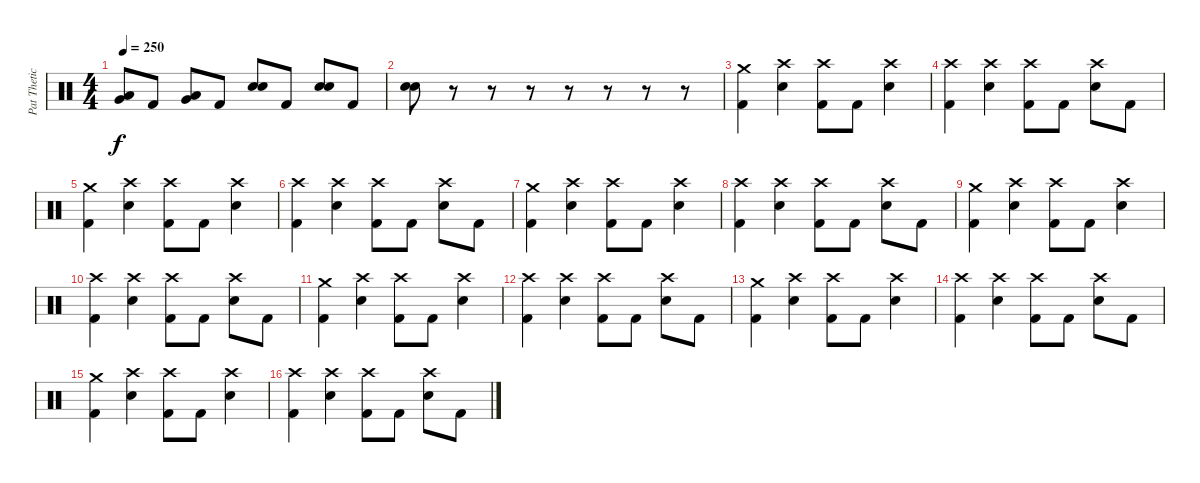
\track ("Pat Thetic" "Pat Thetic") {instrument percussion}
\staff {score}
\articulation defaults
\ts (4 4)
\tempo 250
\clef neutral
\ks c
("Low Tom (hit)" "Very Low Tom (hit)").8{dy f} "Kick (hit) 2".8 ("Low Tom (hit)" "Very Low Tom (hit)").8 "Kick (hit) 2".8 ("Snare (hit) 2" "Snare (hit) 2").8 "Kick (hit) 2".8 ("Snare (hit) 2" "Snare (hit) 2").8 "Kick (hit) 2".8 |
("Snare (hit) 2" "Snare (hit) 2").8 r.8 r.8 r.8 r.8 r.8 r.8 r.8 |
("Crash medium (hit)" "Kick (hit) 2").4 ("Crash high (hit)" "Snare (hit) 2").4 ("Crash high (hit)" "Kick (hit) 2").8 "Kick (hit) 2".8 ("Crash high (hit)" "Snare (hit) 2").4 |
("Crash high (hit)" "Kick (hit) 2").4 ("Crash high (hit)" "Snare (hit) 2").4 ("Crash high (hit)" "Kick (hit) 2").8 "Kick (hit) 2".8 ("Crash high (hit)" "Snare (hit) 2").8 "Kick (hit) 2".8 |
("Crash medium (hit)" "Kick (hit) 2").4 ("Crash high (hit)" "Snare (hit) 2").4 ("Crash high (hit)" "Kick (hit) 2").8 "Kick (hit) 2".8 ("Crash high (hit)" "Snare (hit) 2").4 |
("Crash high (hit)" "Kick (hit) 2").4 ("Crash high (hit)" "Snare (hit) 2").4 ("Crash high (hit)" "Kick (hit) 2").8 "Kick (hit) 2".8 ("Crash high (hit)" "Snare (hit) 2").8 "Kick (hit) 2".8 |
("Crash medium (hit)" "Kick (hit) 2").4 ("Crash high (hit)" "Snare (hit) 2").4 ("Crash high (hit)" "Kick (hit) 2").8 "Kick (hit) 2".8 ("Crash high (hit)" "Snare (hit) 2").4 |
("Crash high (hit)" "Kick (hit) 2").4 ("Crash high (hit)" "Snare (hit) 2").4 ("Crash high (hit)" "Kick (hit) 2").8 "Kick (hit) 2".8 ("Crash high (hit)" "Snare (hit) 2").8 "Kick (hit) 2".8 |
("Crash medium (hit)" "Kick (hit) 2").4 ("Crash high (hit)" "Snare (hit) 2").4 ("Crash high (hit)" "Kick (hit) 2").8 "Kick (hit) 2".8 ("Crash high (hit)" "Snare (hit) 2").4 |
("Crash high (hit)" "Kick (hit) 2").4 ("Crash high (hit)" "Snare (hit) 2").4 ("Crash high (hit)" "Kick (hit) 2").8 "Kick (hit) 2".8 ("Crash high (hit)" "Snare (hit) 2").8 "Kick (hit) 2".8 |
("Crash medium (hit)" "Kick (hit) 2").4 ("Crash high (hit)" "Snare (hit) 2").4 ("Crash high (hit)" "Kick (hit) 2").8 "Kick (hit) 2".8 ("Crash high (hit)" "Snare (hit) 2").4 |
("Crash high (hit)" "Kick (hit) 2").4 ("Crash high (hit)" "Snare (hit) 2").4 ("Crash high (hit)" "Kick (hit) 2").8 "Kick (hit) 2".8 ("Crash high (hit)" "Snare (hit) 2").8 "Kick (hit) 2".8 |
("Crash medium (hit)" "Kick (hit) 2").4 ("Crash high (hit)" "Snare (hit) 2").4 ("Crash high (hit)" "Kick (hit) 2").8 "Kick (hit) 2".8 ("Crash high (hit)" "Snare (hit) 2").4 |
("Crash high (hit)" "Kick (hit) 2").4 ("Crash high (hit)" "Snare (hit) 2").4 ("Crash high (hit)" "Kick (hit) 2").8 "Kick (hit) 2".8 ("Crash high (hit)" "Snare (hit) 2").8 "Kick (hit) 2".8 |
("Crash medium (hit)" "Kick (hit) 2").4 ("Crash high (hit)" "Snare (hit) 2").4 ("Crash high (hit)" "Kick (hit) 2").8 "Kick (hit) 2".8 ("Crash high (hit)" "Snare (hit) 2").4 |
("Crash high (hit)" "Kick (hit) 2").4 ("Crash high (hit)" "Snare (hit) 2").4 ("Crash high (hit)" "Kick (hit) 2").8 "Kick (hit) 2".8 ("Crash high (hit)" "Snare (hit) 2").8 "Kick (hit) 2".8
